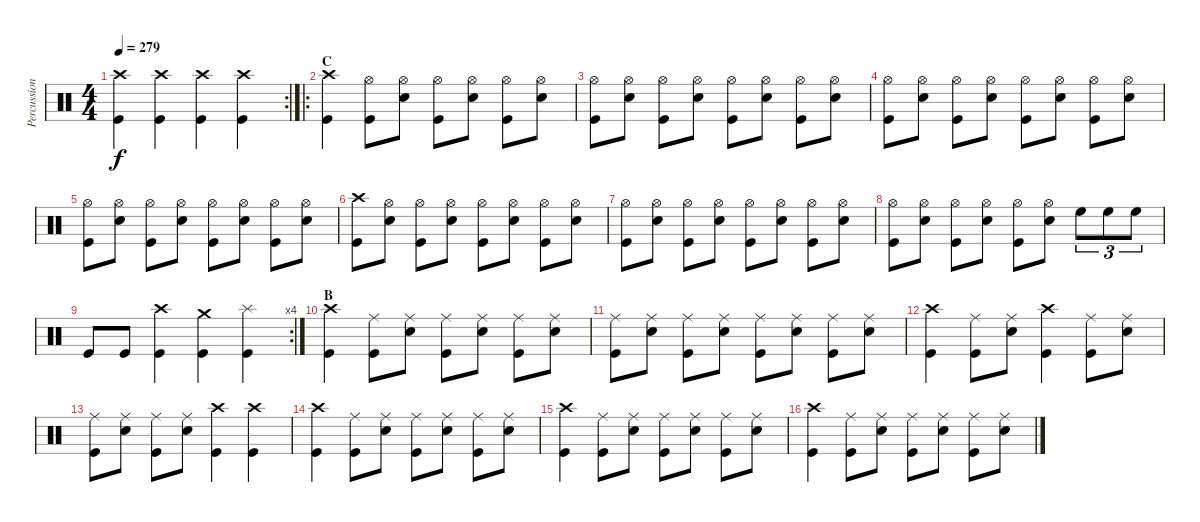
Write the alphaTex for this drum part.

\track ("Percussion" "Percussion") {instrument percussion}
\staff {score}
\articulation defaults
\rc 2
\ts (4 4)
\tempo 279
\clef neutral
\ks c
("Crash high (hit)" "Kick (hit)").4{dy f} ("Crash high (hit)" "Kick (hit)").4 ("Crash high (hit)" "Kick (hit)").4 ("Crash high (hit)" "Kick (hit)").4 |
\ro
\section ("" "C")
("Crash high (hit)" "Kick (hit)").4 ("Hi-Hat (open)" "Kick (hit)").8 ("Hi-Hat (open)" "Snare (hit) 2").8 ("Hi-Hat (open)" "Kick (hit)").8 ("Hi-Hat (open)" "Snare (hit) 2").8 ("Hi-Hat (open)" "Kick (hit)").8 ("Hi-Hat (open)" "Snare (hit) 2").8 |
("Hi-Hat (open)" "Kick (hit)").8 ("Hi-Hat (open)" "Snare (hit) 2").8 ("Hi-Hat (open)" "Kick (hit)").8 ("Hi-Hat (open)" "Snare (hit) 2").8 ("Hi-Hat (open)" "Kick (hit)").8 ("Hi-Hat (open)" "Snare (hit) 2").8 ("Hi-Hat (open)" "Kick (hit)").8 ("Hi-Hat (open)" "Snare (hit) 2").8 |
("Hi-Hat (open)" "Kick (hit)").8 ("Hi-Hat (open)" "Snare (hit) 2").8 ("Hi-Hat (open)" "Kick (hit)").8 ("Hi-Hat (open)" "Snare (hit) 2").8 ("Hi-Hat (open)" "Kick (hit)").8 ("Hi-Hat (open)" "Snare (hit) 2").8 ("Hi-Hat (open)" "Kick (hit)").8 ("Hi-Hat (open)" "Snare (hit) 2").8 |
("Hi-Hat (open)" "Kick (hit)").8 ("Hi-Hat (open)" "Snare (hit) 2").8 ("Hi-Hat (open)" "Kick (hit)").8 ("Hi-Hat (open)" "Snare (hit) 2").8 ("Hi-Hat (open)" "Kick (hit)").8 ("Hi-Hat (open)" "Snare (hit) 2").8 ("Hi-Hat (open)" "Kick (hit)").8 ("Hi-Hat (open)" "Snare (hit) 2").8 |
("Crash high (hit)" "Kick (hit)").8 ("Hi-Hat (open)" "Snare (hit) 2").8 ("Hi-Hat (open)" "Kick (hit)").8 ("Hi-Hat (open)" "Snare (hit) 2").8 ("Hi-Hat (open)" "Kick (hit)").8 ("Hi-Hat (open)" "Snare (hit) 2").8 ("Hi-Hat (open)" "Kick (hit)").8 ("Hi-Hat (open)" "Snare (hit) 2").8 |
("Hi-Hat (open)" "Kick (hit)").8 ("Hi-Hat (open)" "Snare (hit) 2").8 ("Hi-Hat (open)" "Kick (hit)").8 ("Hi-Hat (open)" "Snare (hit) 2").8 ("Hi-Hat (open)" "Kick (hit)").8 ("Hi-Hat (open)" "Snare (hit) 2").8 ("Hi-Hat (open)" "Kick (hit)").8 ("Hi-Hat (open)" "Snare (hit) 2").8 |
("Hi-Hat (open)" "Kick (hit)").8 ("Hi-Hat (open)" "Snare (hit) 2").8 ("Hi-Hat (open)" "Kick (hit)").8 ("Hi-Hat (open)" "Snare (hit) 2").8 ("Hi-Hat (open)" "Kick (hit)").8 ("Hi-Hat (open)" "Snare (hit) 2").8 "High Floor Tom (hit)".8{tu (3 2)} "High Floor Tom (hit)".8{tu (3 2)} "High Floor Tom (hit)".8{tu (3 2)} |
\rc 4 "Kick (hit)".8 "Kick (hit)".8
("Crash high (hit)" "Kick (hit)").4 ("Crash medium (hit)" "Kick (hit)").4 ("Splash (hit)" "Kick (hit)").4 |
\section ("" "B")
("Crash high (hit)" "Kick (hit)").4 ("Ride (middle)" "Kick (hit)").8 ("Ride (middle)" "Snare (hit) 2").8 ("Ride (middle)" "Kick (hit)").8 ("Ride (middle)" "Snare (hit) 2").8 ("Ride (middle)" "Kick (hit)").8 ("Ride (middle)" "Snare (hit) 2").8 |
("Ride (middle)" "Kick (hit)").8 ("Ride (middle)" "Snare (hit) 2").8 ("Ride (middle)" "Kick (hit)").8 ("Ride (middle)" "Snare (hit) 2").8 ("Ride (middle)" "Kick (hit)").8 ("Ride (middle)" "Snare (hit) 2").8 ("Ride (middle)" "Kick (hit)").8 ("Ride (middle)" "Snare (hit) 2").8 |
("Crash high (hit)" "Kick (hit)").4 ("Ride (middle)" "Kick (hit)").8 ("Ride (middle)" "Snare (hit) 2").8 ("Crash high (hit)" "Kick (hit)").4 ("Ride (middle)" "Kick (hit)").8 ("Ride (middle)" "Snare (hit) 2").8 |
("Ride (middle)" "Kick (hit)").8 ("Ride (middle)" "Snare (hit) 2").8 ("Ride (middle)" "Kick (hit)").8 ("Ride (middle)" "Snare (hit) 2").8 ("Crash high (hit)" "Kick (hit)").4 ("Crash high (hit)" "Kick (hit)").4 |
("Crash high (hit)" "Kick (hit)").4 ("Ride (middle)" "Kick (hit)").8 ("Ride (middle)" "Snare (hit) 2").8 ("Ride (middle)" "Kick (hit)").8 ("Ride (middle)" "Snare (hit) 2").8 ("Ride (middle)" "Kick (hit)").8 ("Ride (middle)" "Snare (hit) 2").8 |
("Crash high (hit)" "Kick (hit)").4 ("Ride (middle)" "Kick (hit)").8 ("Ride (middle)" "Snare (hit) 2").8 ("Ride (middle)" "Kick (hit)").8 ("Ride (middle)" "Snare (hit) 2").8 ("Ride (middle)" "Kick (hit)").8 ("Ride (middle)" "Snare (hit) 2").8 |
("Crash high (hit)" "Kick (hit)").4 ("Ride (middle)" "Kick (hit)").8 ("Ride (middle)" "Snare (hit) 2").8 ("Ride (middle)" "Kick (hit)").8 ("Ride (middle)" "Snare (hit) 2").8 ("Ride (middle)" "Kick (hit)").8 ("Ride (middle)" "Snare (hit) 2").8
